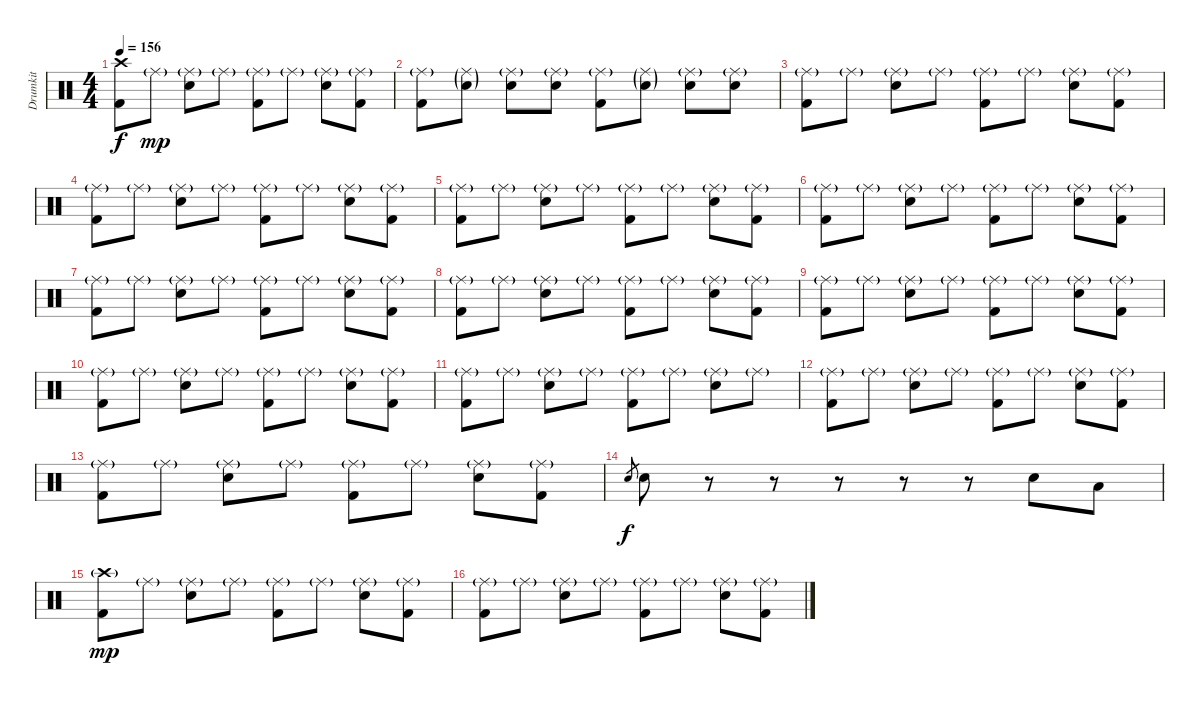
\track ("Drumkit" "Drumkit") {instrument percussion}
\staff {score}
\articulation defaults
\ts (4 4)
\tempo 156
\clef neutral
\ks c
("Crash high (hit)" "Kick (hit) 2").8{dy f} "Ride (middle)"{g}.8{dy mp} ("Ride (middle)"{g} "Electric Snare (hit)").8 "Ride (middle)"{g}.8 ("Ride (middle)"{g} "Kick (hit) 2").8 "Ride (middle)"{g}.8 ("Ride (middle)"{g} "Electric Snare (hit)").8 ("Ride (middle)"{g} "Kick (hit) 2").8 |
("Ride (middle)"{g} "Kick (hit) 2").8 ("Ride (middle)"{g} "Electric Snare (hit)"{g}).8 ("Ride (middle)"{g} "Electric Snare (hit)").8 ("Ride (middle)"{g} "Electric Snare (hit)").8 ("Ride (middle)"{g} "Kick (hit) 2").8 ("Ride (middle)"{g} "Electric Snare (hit)"{g}).8 ("Ride (middle)"{g} "Electric Snare (hit)").8 ("Ride (middle)"{g} "Electric Snare (hit)").8 |
("Ride (middle)"{g} "Kick (hit) 2").8 "Ride (middle)"{g}.8 ("Ride (middle)"{g} "Electric Snare (hit)").8 "Ride (middle)"{g}.8 ("Ride (middle)"{g} "Kick (hit) 2").8 "Ride (middle)"{g}.8 ("Ride (middle)"{g} "Electric Snare (hit)").8 ("Ride (middle)"{g} "Kick (hit) 2").8 |
("Ride (middle)"{g} "Kick (hit) 2").8 "Ride (middle)"{g}.8 ("Ride (middle)"{g} "Electric Snare (hit)").8 "Ride (middle)"{g}.8 ("Ride (middle)"{g} "Kick (hit) 2").8 "Ride (middle)"{g}.8 ("Ride (middle)"{g} "Electric Snare (hit)").8 ("Ride (middle)"{g} "Kick (hit) 2").8 |
("Ride (middle)"{g} "Kick (hit) 2").8 "Ride (middle)"{g}.8 ("Ride (middle)"{g} "Electric Snare (hit)").8 "Ride (middle)"{g}.8 ("Ride (middle)"{g} "Kick (hit) 2").8 "Ride (middle)"{g}.8 ("Ride (middle)"{g} "Electric Snare (hit)").8 ("Ride (middle)"{g} "Kick (hit) 2").8 |
("Ride (middle)"{g} "Kick (hit) 2").8 "Ride (middle)"{g}.8 ("Ride (middle)"{g} "Electric Snare (hit)").8 "Ride (middle)"{g}.8 ("Ride (middle)"{g} "Kick (hit) 2").8 "Ride (middle)"{g}.8 ("Ride (middle)"{g} "Electric Snare (hit)").8 ("Ride (middle)"{g} "Kick (hit) 2").8 |
("Ride (middle)"{g} "Kick (hit) 2").8 "Ride (middle)"{g}.8 ("Ride (middle)"{g} "Electric Snare (hit)").8 "Ride (middle)"{g}.8 ("Ride (middle)"{g} "Kick (hit) 2").8 "Ride (middle)"{g}.8 ("Ride (middle)"{g} "Electric Snare (hit)").8 ("Ride (middle)"{g} "Kick (hit) 2").8 |
("Ride (middle)"{g} "Kick (hit) 2").8 "Ride (middle)"{g}.8 ("Ride (middle)"{g} "Electric Snare (hit)").8 "Ride (middle)"{g}.8 ("Ride (middle)"{g} "Kick (hit) 2").8 "Ride (middle)"{g}.8 ("Ride (middle)"{g} "Electric Snare (hit)").8 ("Ride (middle)"{g} "Kick (hit) 2").8 |
("Ride (middle)"{g} "Kick (hit) 2").8 "Ride (middle)"{g}.8 ("Ride (middle)"{g} "Electric Snare (hit)").8 "Ride (middle)"{g}.8 ("Ride (middle)"{g} "Kick (hit) 2").8 "Ride (middle)"{g}.8 ("Ride (middle)"{g} "Electric Snare (hit)").8 ("Ride (middle)"{g} "Kick (hit) 2").8 |
("Ride (middle)"{g} "Kick (hit) 2").8 "Ride (middle)"{g}.8 ("Ride (middle)"{g} "Electric Snare (hit)").8 "Ride (middle)"{g}.8 ("Ride (middle)"{g} "Kick (hit) 2").8 "Ride (middle)"{g}.8 ("Ride (middle)"{g} "Electric Snare (hit)").8 ("Ride (middle)"{g} "Kick (hit) 2").8 |
("Ride (middle)"{g} "Kick (hit) 2").8 "Ride (middle)"{g}.8 ("Ride (middle)"{g} "Electric Snare (hit)").8 "Ride (middle)"{g}.8 ("Ride (middle)"{g} "Kick (hit) 2").8 "Ride (middle)"{g}.8 ("Ride (middle)"{g} "Electric Snare (hit)").8 "Ride (middle)"{g}.8 |
("Ride (middle)"{g} "Kick (hit) 2").8 "Ride (middle)"{g}.8 ("Ride (middle)"{g} "Electric Snare (hit)").8 "Ride (middle)"{g}.8 ("Ride (middle)"{g} "Kick (hit) 2").8 "Ride (middle)"{g}.8 ("Ride (middle)"{g} "Electric Snare (hit)").8 ("Ride (middle)"{g} "Kick (hit) 2").8 |
("Ride (middle)"{g} "Kick (hit) 2").8 "Ride (middle)"{g}.8 ("Ride (middle)"{g} "Electric Snare (hit)").8 "Ride (middle)"{g}.8 ("Ride (middle)"{g} "Kick (hit) 2").8 "Ride (middle)"{g}.8 ("Ride (middle)"{g} "Electric Snare (hit)").8 ("Ride (middle)"{g} "Kick (hit) 2").8 |
"Electric Snare (hit)".8{gr dy f} "Electric Snare (hit)".8 r.8 r.8 r.8 r.8 r.8 "Electric Snare (hit)".8 "Low Tom (hit)".8 |
("Crash high (hit)"{g} "Kick (hit) 2").8{dy mp} "Ride (middle)"{g}.8 ("Ride (middle)"{g} "Electric Snare (hit)").8 "Ride (middle)"{g}.8 ("Ride (middle)"{g} "Kick (hit) 2").8 "Ride (middle)"{g}.8 ("Ride (middle)"{g} "Electric Snare (hit)").8 ("Ride (middle)"{g} "Kick (hit) 2").8 |
("Ride (middle)"{g} "Kick (hit) 2").8 "Ride (middle)"{g}.8 ("Ride (middle)"{g} "Electric Snare (hit)").8 "Ride (middle)"{g}.8 ("Ride (middle)"{g} "Kick (hit) 2").8 "Ride (middle)"{g}.8 ("Ride (middle)"{g} "Electric Snare (hit)").8 ("Ride (middle)"{g} "Kick (hit) 2").8
